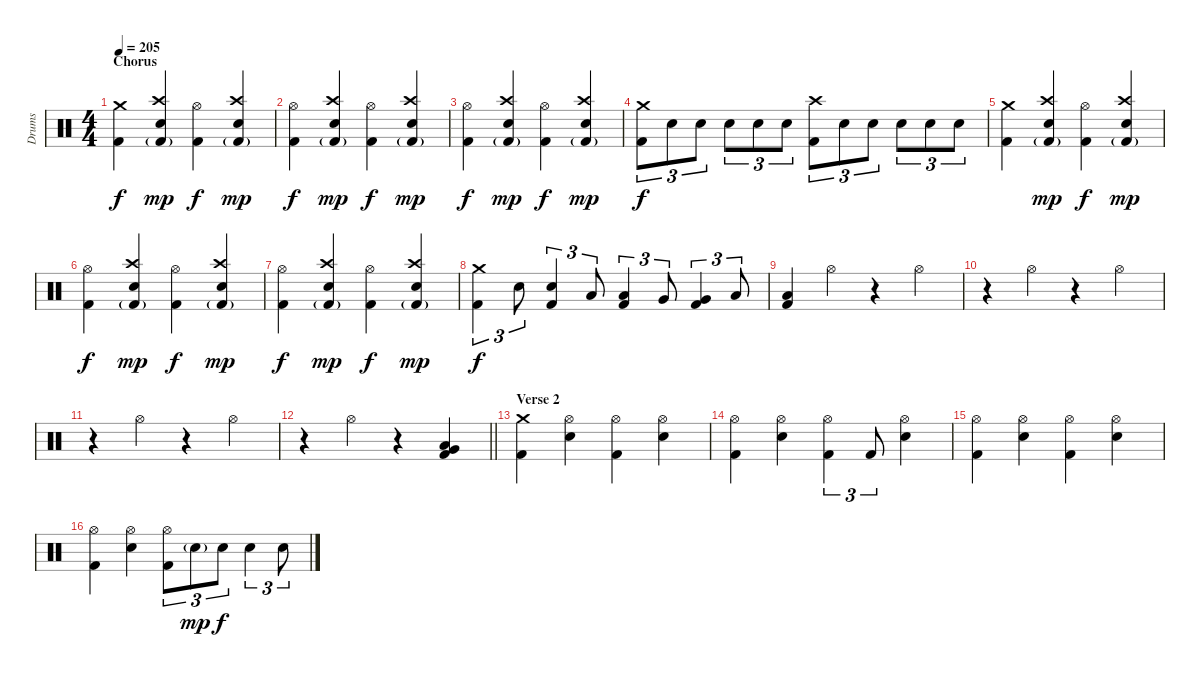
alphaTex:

\track ("Drums" "Drums") {instrument percussion}
\staff {score}
\articulation defaults
\ts (4 4)
\section ("" "Chorus")
\tempo 205
\clef neutral
\ks c
("Crash medium (hit)" "Kick (hit) 2").4{dy f} ("Crash high (hit)" "Electric Snare (hit)" "Kick (hit) 2"{g}).4{dy mp} ("Hi-Hat (open)" "Kick (hit) 2").4{dy f} ("Crash high (hit)" "Electric Snare (hit)" "Kick (hit) 2"{g}).4{dy mp} |
("Hi-Hat (open)" "Kick (hit) 2").4{dy f} ("Crash high (hit)" "Electric Snare (hit)" "Kick (hit) 2"{g}).4{dy mp} ("Hi-Hat (open)" "Kick (hit) 2").4{dy f} ("Crash high (hit)" "Electric Snare (hit)" "Kick (hit) 2"{g}).4{dy mp} |
("Hi-Hat (open)" "Kick (hit) 2").4{dy f} ("Crash high (hit)" "Electric Snare (hit)" "Kick (hit) 2"{g}).4{dy mp} ("Hi-Hat (open)" "Kick (hit) 2").4{dy f} ("Crash high (hit)" "Electric Snare (hit)" "Kick (hit) 2"{g}).4{dy mp} |
("Crash medium (hit)" "Kick (hit) 2").8{tu (3 2) dy f} "Electric Snare (hit)".8{tu (3 2)} "Electric Snare (hit)".8{tu (3 2)} "Electric Snare (hit)".8{tu (3 2)} "Electric Snare (hit)".8{tu (3 2)} "Electric Snare (hit)".8{tu (3 2)} ("Crash high (hit)" "Kick (hit) 2").8{tu (3 2)} "Electric Snare (hit)".8{tu (3 2)} "Electric Snare (hit)".8{tu (3 2)} "Electric Snare (hit)".8{tu (3 2)} "Electric Snare (hit)".8{tu (3 2)} "Electric Snare (hit)".8{tu (3 2)} |
("Crash medium (hit)" "Kick (hit) 2").4 ("Crash high (hit)" "Electric Snare (hit)" "Kick (hit) 2"{g}).4{dy mp} ("Hi-Hat (open)" "Kick (hit) 2").4{dy f} ("Crash high (hit)" "Electric Snare (hit)" "Kick (hit) 2"{g}).4{dy mp} |
("Hi-Hat (open)" "Kick (hit) 2").4{dy f} ("Crash high (hit)" "Electric Snare (hit)" "Kick (hit) 2"{g}).4{dy mp} ("Hi-Hat (open)" "Kick (hit) 2").4{dy f} ("Crash high (hit)" "Electric Snare (hit)" "Kick (hit) 2"{g}).4{dy mp} |
("Hi-Hat (open)" "Kick (hit) 2").4{dy f} ("Crash high (hit)" "Electric Snare (hit)" "Kick (hit) 2"{g}).4{dy mp} ("Hi-Hat (open)" "Kick (hit) 2").4{dy f} ("Crash high (hit)" "Electric Snare (hit)" "Kick (hit) 2"{g}).4{dy mp} |
("Crash medium (hit)" "Kick (hit) 2").4{tu (3 2) dy f} "Electric Snare (hit)".8{tu (3 2)} ("Electric Snare (hit)" "Kick (hit) 2").4{tu (3 2)} "Low Tom (hit)".8{tu (3 2)} ("Low Tom (hit)" "Kick (hit) 2").4{tu (3 2)} "Very Low Tom (hit)".8{tu (3 2)} ("Very Low Tom (hit)" "Kick (hit) 2").4{tu (3 2)} "Low Floor Tom (hit)".8{tu (3 2)} |
("Low Floor Tom (hit)" "Kick (hit) 2").4 "Hi-Hat (open)".4 r.4 "Hi-Hat (open)".4 |
r.4 "Hi-Hat (open)".4 r.4 "Hi-Hat (open)".4 |
r.4 "Hi-Hat (open)".4 r.4 "Hi-Hat (open)".4 |
\barLineRight lightlight
r.4 "Hi-Hat (open)".4 r.4 ("Low Floor Tom (hit)" "Very Low Tom (hit)" "Kick (hit) 2").4 |
\section ("" "Verse 2")
("Crash medium (hit)" "Kick (hit) 2").4 ("Hi-Hat (open)" "Electric Snare (hit)").4 ("Hi-Hat (open)" "Kick (hit) 2").4 ("Hi-Hat (open)" "Electric Snare (hit)").4 |
("Hi-Hat (open)" "Kick (hit) 2").4 ("Hi-Hat (open)" "Electric Snare (hit)").4 ("Hi-Hat (open)" "Kick (hit) 2").4{tu (3 2)} "Kick (hit) 2".8{tu (3 2)} ("Hi-Hat (open)" "Electric Snare (hit)").4 |
("Hi-Hat (open)" "Kick (hit) 2").4 ("Hi-Hat (open)" "Electric Snare (hit)").4 ("Hi-Hat (open)" "Kick (hit) 2").4 ("Hi-Hat (open)" "Electric Snare (hit)").4 |
("Hi-Hat (open)" "Kick (hit) 2").4 ("Hi-Hat (open)" "Electric Snare (hit)").4 ("Hi-Hat (open)" "Kick (hit) 2").8{tu (3 2)} "Electric Snare (hit)"{g}.8{tu (3 2) dy mp} "Electric Snare (hit)".8{tu (3 2) dy f} "Electric Snare (hit)".4{tu (3 2)} "Electric Snare (hit)".8{tu (3 2)}
